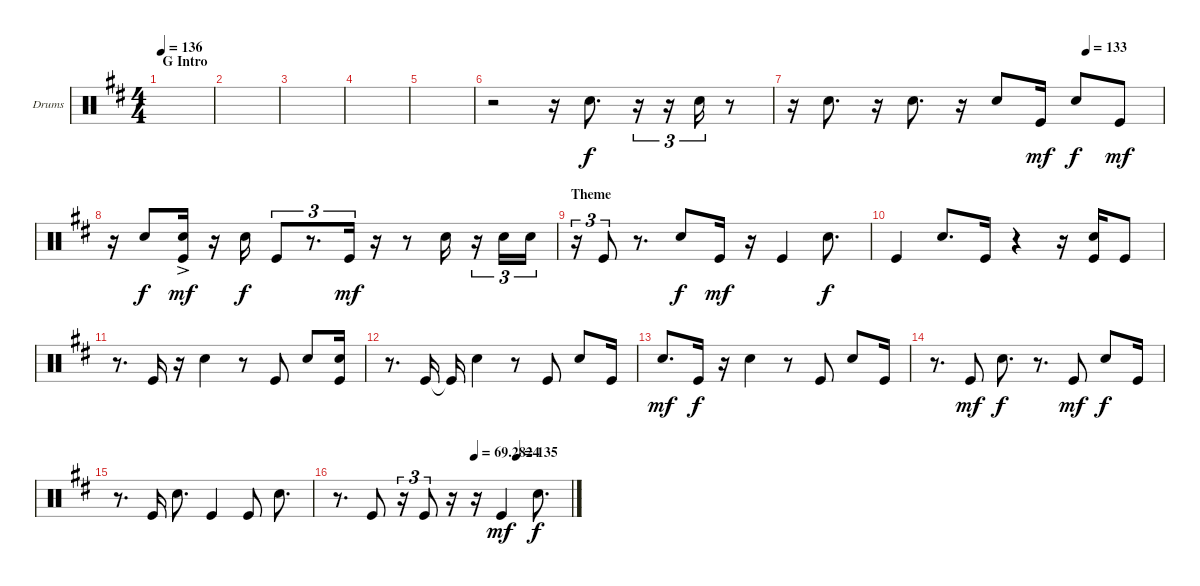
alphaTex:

\bracketExtendMode groupsimilarinstruments
\firstSystemTrackNameOrientation horizontal
\otherSystemsTrackNameOrientation horizontal
\track ("Kick" "Drums") {instrument percussion}
\staff {score}
\articulation defaults
\ts (4 4)
\section ("" "G Intro")
\tempo 136
\clef neutral
\ks d
|
|
|
|
|
r.2 r.16 "Snare (hit) 2".8{d} r.16{tu (3 2)} r.16{tu (3 2)} "Snare (hit) 2".16{tu (3 2)} r.8 |
\tempo (133 0.79375)
r.16 "Snare (hit) 2".8{d} r.16 "Snare (hit) 2".8{d} r.16 "Snare (hit) 2".8 "Kick (hit)".16{dy mf} "Snare (hit) 2".8{dy f} "Kick (hit)".8{dy mf} |
r.16 "Snare (hit) 2".8{dy f} ("Kick (hit)" "Snare (hit) 2"{ac}).16{dy mf} r.16 "Snare (hit) 2".16{dy f} "Kick (hit)".8{tu (3 2)} r.8{d tu (3 2)} "Kick (hit)".16{tu (3 2) dy mf} r.16 r.8 "Snare (hit) 2".16 r.16{tu (3 2)} "Snare (hit) 2".16{tu (3 2)} "Snare (hit) 2".16{tu (3 2)} |
\section ("" "Theme")
r.16{tu (3 2)} "Kick (hit)".8{tu (3 2)} r.8{d} "Snare (hit) 2".8{dy f} "Kick (hit)".16{dy mf} r.16 "Kick (hit)".4 "Snare (hit) 2".8{d dy f} |
"Kick (hit)".4 "Snare (hit) 2".8{d} "Kick (hit)".16 r.4 r.16 ("Kick (hit)" "Snare (hit) 2").16 "Kick (hit)".8 |
r.8{d} "Kick (hit)".16 r.16 "Snare (hit) 2".4 r.8 "Kick (hit)".8 "Snare (hit) 2".8 ("Kick (hit)" "Snare (hit) 2").16 |
r.8{d} "Kick (hit)".16 "Kick (hit)"{t}.16 "Snare (hit) 2".4 r.8 "Kick (hit)".8 "Snare (hit) 2".8 "Kick (hit)".16 |
"Snare (hit) 2".8{d dy mf} "Kick (hit)".16{dy f} r.16 "Snare (hit) 2".4 r.8 "Kick (hit)".8 "Snare (hit) 2".8 "Kick (hit)".16 |
r.8{d} "Kick (hit)".8{dy mf} "Snare (hit) 2".8{d dy f} r.8{d} "Kick (hit)".8{dy mf} "Snare (hit) 2".8{dy f} "Kick (hit)".16 |
r.8{d} "Kick (hit)".16 "Snare (hit) 2".8{d} "Kick (hit)".4 "Kick (hit)".8 "Snare (hit) 2".8{d} |
\tempo (69.2824 0.5875)
\tempo (135 0.76875)
r.8{d} "Kick (hit)".8 r.16{tu (3 2)} "Kick (hit)".8{tu (3 2)} r.16 r.16 "Kick (hit)".4{dy mf} "Snare (hit) 2".8{d dy f}
